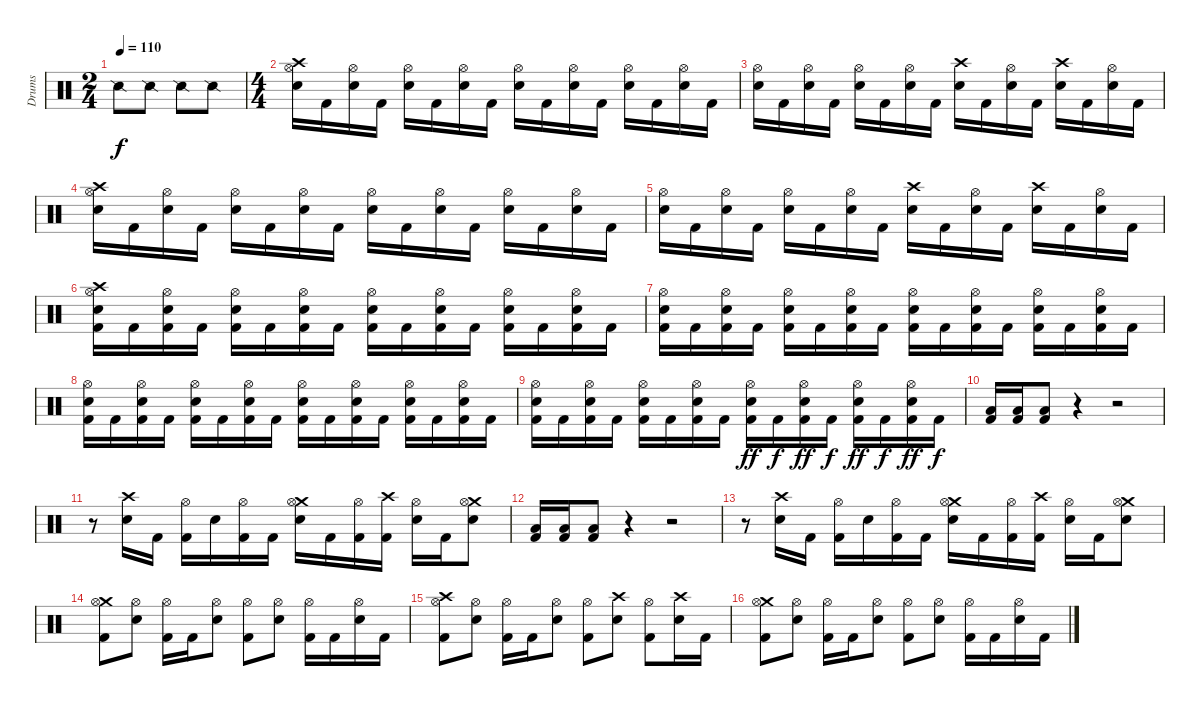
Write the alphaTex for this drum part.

\track ("Drums" "Drums") {instrument percussion}
\staff {score}
\articulation defaults
\ts (2 4)
\tempo 110
\clef neutral
\ks c "Snare (side stick) 2".8{dy f} "Snare (side stick) 2".8 "Snare (side stick) 2".8 "Snare (side stick) 2".8
|
\ts (4 4)
("Crash high (hit)" "Hi-Hat (open)" "Electric Snare (hit)").16 "Kick (hit) 2".16 ("Hi-Hat (open)" "Electric Snare (hit)").16 "Kick (hit) 2".16 ("Hi-Hat (open)" "Electric Snare (hit)").16 "Kick (hit) 2".16 ("Hi-Hat (open)" "Electric Snare (hit)").16 "Kick (hit) 2".16 ("Hi-Hat (open)" "Electric Snare (hit)").16 "Kick (hit) 2".16 ("Hi-Hat (open)" "Electric Snare (hit)").16 "Kick (hit) 2".16 ("Hi-Hat (open)" "Electric Snare (hit)").16 "Kick (hit) 2".16 ("Hi-Hat (open)" "Electric Snare (hit)").16 "Kick (hit) 2".16 |
("Hi-Hat (open)" "Electric Snare (hit)").16 "Kick (hit) 2".16 ("Hi-Hat (open)" "Electric Snare (hit)").16 "Kick (hit) 2".16 ("Hi-Hat (open)" "Electric Snare (hit)").16 "Kick (hit) 2".16 ("Hi-Hat (open)" "Electric Snare (hit)").16 "Kick (hit) 2".16 ("Crash high (hit)" "Electric Snare (hit)").16 "Kick (hit) 2".16 ("Hi-Hat (open)" "Electric Snare (hit)").16 "Kick (hit) 2".16 ("Crash high (hit)" "Electric Snare (hit)").16 "Kick (hit) 2".16 ("Hi-Hat (open)" "Electric Snare (hit)").16 "Kick (hit) 2".16 |
("Crash high (hit)" "Hi-Hat (open)" "Electric Snare (hit)").16 "Kick (hit) 2".16 ("Hi-Hat (open)" "Electric Snare (hit)").16 "Kick (hit) 2".16 ("Hi-Hat (open)" "Electric Snare (hit)").16 "Kick (hit) 2".16 ("Hi-Hat (open)" "Electric Snare (hit)").16 "Kick (hit) 2".16 ("Hi-Hat (open)" "Electric Snare (hit)").16 "Kick (hit) 2".16 ("Hi-Hat (open)" "Electric Snare (hit)").16 "Kick (hit) 2".16 ("Hi-Hat (open)" "Electric Snare (hit)").16 "Kick (hit) 2".16 ("Hi-Hat (open)" "Electric Snare (hit)").16 "Kick (hit) 2".16 |
("Hi-Hat (open)" "Electric Snare (hit)").16 "Kick (hit) 2".16 ("Hi-Hat (open)" "Electric Snare (hit)").16 "Kick (hit) 2".16 ("Hi-Hat (open)" "Electric Snare (hit)").16 "Kick (hit) 2".16 ("Hi-Hat (open)" "Electric Snare (hit)").16 "Kick (hit) 2".16 ("Crash high (hit)" "Electric Snare (hit)").16 "Kick (hit) 2".16 ("Hi-Hat (open)" "Electric Snare (hit)").16 "Kick (hit) 2".16 ("Crash high (hit)" "Electric Snare (hit)").16 "Kick (hit) 2".16 ("Hi-Hat (open)" "Electric Snare (hit)").16 "Kick (hit) 2".16 |
("Crash high (hit)" "Hi-Hat (open)" "Electric Snare (hit)" "Kick (hit) 2").16 "Kick (hit) 2".16 ("Hi-Hat (open)" "Electric Snare (hit)" "Kick (hit) 2").16 "Kick (hit) 2".16 ("Hi-Hat (open)" "Electric Snare (hit)" "Kick (hit) 2").16 "Kick (hit) 2".16 ("Hi-Hat (open)" "Electric Snare (hit)" "Kick (hit) 2").16 "Kick (hit) 2".16 ("Hi-Hat (open)" "Electric Snare (hit)" "Kick (hit) 2").16 "Kick (hit) 2".16 ("Hi-Hat (open)" "Electric Snare (hit)" "Kick (hit) 2").16 "Kick (hit) 2".16 ("Hi-Hat (open)" "Electric Snare (hit)" "Kick (hit) 2").16 "Kick (hit) 2".16 ("Hi-Hat (open)" "Electric Snare (hit)" "Kick (hit) 2").16 "Kick (hit) 2".16 |
("Hi-Hat (open)" "Electric Snare (hit)" "Kick (hit) 2").16 "Kick (hit) 2".16 ("Hi-Hat (open)" "Electric Snare (hit)" "Kick (hit) 2").16 "Kick (hit) 2".16 ("Hi-Hat (open)" "Electric Snare (hit)" "Kick (hit) 2").16 "Kick (hit) 2".16 ("Hi-Hat (open)" "Electric Snare (hit)" "Kick (hit) 2").16 "Kick (hit) 2".16 ("Hi-Hat (open)" "Electric Snare (hit)" "Kick (hit) 2").16 "Kick (hit) 2".16 ("Hi-Hat (open)" "Electric Snare (hit)" "Kick (hit) 2").16 "Kick (hit) 2".16 ("Hi-Hat (open)" "Electric Snare (hit)" "Kick (hit) 2").16 "Kick (hit) 2".16 ("Hi-Hat (open)" "Electric Snare (hit)" "Kick (hit) 2").16 "Kick (hit) 2".16 |
("Hi-Hat (open)" "Electric Snare (hit)" "Kick (hit) 2").16 "Kick (hit) 2".16 ("Hi-Hat (open)" "Electric Snare (hit)" "Kick (hit) 2").16 "Kick (hit) 2".16 ("Hi-Hat (open)" "Electric Snare (hit)" "Kick (hit) 2").16 "Kick (hit) 2".16 ("Hi-Hat (open)" "Electric Snare (hit)" "Kick (hit) 2").16 "Kick (hit) 2".16 ("Hi-Hat (open)" "Electric Snare (hit)" "Kick (hit) 2").16 "Kick (hit) 2".16 ("Hi-Hat (open)" "Electric Snare (hit)" "Kick (hit) 2").16 "Kick (hit) 2".16 ("Hi-Hat (open)" "Electric Snare (hit)" "Kick (hit) 2").16 "Kick (hit) 2".16 ("Hi-Hat (open)" "Electric Snare (hit)" "Kick (hit) 2").16 "Kick (hit) 2".16 |
("Hi-Hat (open)" "Electric Snare (hit)" "Kick (hit) 2").16 "Kick (hit) 2".16 ("Hi-Hat (open)" "Electric Snare (hit)" "Kick (hit) 2").16 "Kick (hit) 2".16 ("Hi-Hat (open)" "Electric Snare (hit)" "Kick (hit) 2").16 "Kick (hit) 2".16 ("Hi-Hat (open)" "Electric Snare (hit)" "Kick (hit) 2").16 "Kick (hit) 2".16 ("Hi-Hat (open)" "Electric Snare (hit)" "Kick (hit) 2").16{dy ff} "Kick (hit) 2".16{dy f} ("Hi-Hat (open)" "Electric Snare (hit)" "Kick (hit) 2").16{dy ff} "Kick (hit) 2".16{dy f} ("Hi-Hat (open)" "Electric Snare (hit)" "Kick (hit) 2").16{dy ff} "Kick (hit) 2".16{dy f} ("Hi-Hat (open)" "Electric Snare (hit)" "Kick (hit) 2").16{dy ff} "Kick (hit) 2".16{dy f} |
("Low Tom (hit)" "Kick (hit) 2").16 ("Low Tom (hit)" "Kick (hit) 2").16 ("Low Tom (hit)" "Kick (hit) 2").8 r.4 r.2 |
r.8 ("Crash high (hit)" "Electric Snare (hit)").16 "Kick (hit) 2".16 ("Hi-Hat (open)" "Kick (hit) 2").16 "Electric Snare (hit)".16 ("Hi-Hat (open)" "Kick (hit) 2").16 "Kick (hit) 2".16 ("Crash medium (hit)" "Hi-Hat (open)" "Electric Snare (hit)").16 "Kick (hit) 2".16 ("Hi-Hat (open)" "Kick (hit) 2").16 ("Crash high (hit)" "Kick (hit) 2").16 ("Hi-Hat (open)" "Electric Snare (hit)").16 "Kick (hit) 2".16 ("Crash medium (hit)" "Hi-Hat (open)" "Electric Snare (hit)").8 |
("Low Tom (hit)" "Kick (hit) 2").16 ("Low Tom (hit)" "Kick (hit) 2").16 ("Low Tom (hit)" "Kick (hit) 2").8 r.4 r.2 |
r.8 ("Crash high (hit)" "Electric Snare (hit)").16 "Kick (hit) 2".16 ("Hi-Hat (open)" "Kick (hit) 2").16 "Electric Snare (hit)".16 ("Hi-Hat (open)" "Kick (hit) 2").16 "Kick (hit) 2".16 ("Crash medium (hit)" "Hi-Hat (open)" "Electric Snare (hit)").16 "Kick (hit) 2".16 ("Hi-Hat (open)" "Kick (hit) 2").16 ("Crash high (hit)" "Kick (hit) 2").16 ("Hi-Hat (open)" "Electric Snare (hit)").16 "Kick (hit) 2".16 ("Crash medium (hit)" "Hi-Hat (open)" "Electric Snare (hit)").8 |
("Crash medium (hit)" "Hi-Hat (open)" "Kick (hit) 2").8 ("Hi-Hat (open)" "Electric Snare (hit)").8 ("Hi-Hat (open)" "Kick (hit) 2").16 "Kick (hit) 2".16 ("Hi-Hat (open)" "Electric Snare (hit)").8 ("Hi-Hat (open)" "Kick (hit) 2").8 ("Hi-Hat (open)" "Electric Snare (hit)").8 ("Hi-Hat (open)" "Kick (hit) 2").16 "Kick (hit) 2".16 ("Hi-Hat (open)" "Electric Snare (hit)").16 "Kick (hit) 2".16 |
("Crash high (hit)" "Hi-Hat (open)" "Kick (hit) 2").8 ("Hi-Hat (open)" "Electric Snare (hit)").8 ("Hi-Hat (open)" "Kick (hit) 2").16 "Kick (hit) 2".16 ("Hi-Hat (open)" "Electric Snare (hit)").8 ("Hi-Hat (open)" "Kick (hit) 2").8 ("Crash high (hit)" "Electric Snare (hit)").8 ("Hi-Hat (open)" "Kick (hit) 2").8 ("Crash high (hit)" "Electric Snare (hit)").16 "Kick (hit) 2".16 |
("Crash medium (hit)" "Hi-Hat (open)" "Kick (hit) 2").8 ("Hi-Hat (open)" "Electric Snare (hit)").8 ("Hi-Hat (open)" "Kick (hit) 2").16 "Kick (hit) 2".16 ("Hi-Hat (open)" "Electric Snare (hit)").8 ("Hi-Hat (open)" "Kick (hit) 2").8 ("Hi-Hat (open)" "Electric Snare (hit)").8 ("Hi-Hat (open)" "Kick (hit) 2").16 "Kick (hit) 2".16 ("Hi-Hat (open)" "Electric Snare (hit)").16 "Kick (hit) 2".16
